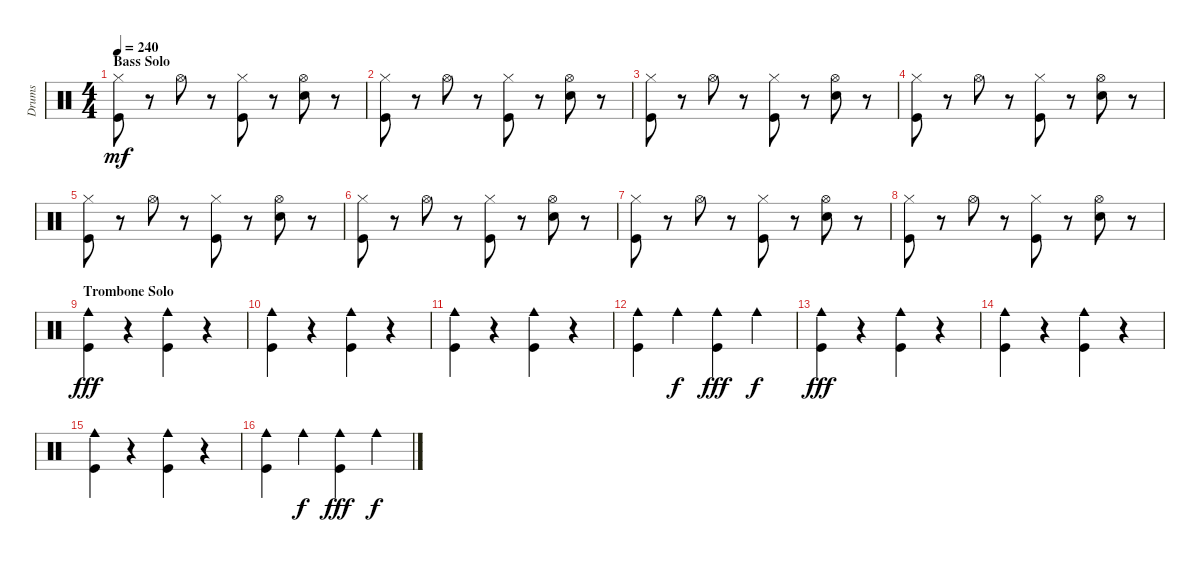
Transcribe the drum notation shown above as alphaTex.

\track ("Drums" "Drums") {instrument percussion}
\staff {score}
\articulation defaults
\ts (4 4)
\section ("" "Bass Solo")
\tempo 240
\clef neutral
\ks c
("Kick (hit)" "Hi-Hat (closed)").8{dy mf} r.8 "Hi-Hat (open)".8 r.8 ("Kick (hit)" "Hi-Hat (closed)").8 r.8 ("Snare (hit) 2" "Hi-Hat (open)").8 r.8 |
("Kick (hit)" "Hi-Hat (closed)").8 r.8 "Hi-Hat (open)".8 r.8 ("Kick (hit)" "Hi-Hat (closed)").8 r.8 ("Snare (hit) 2" "Hi-Hat (open)").8 r.8 |
("Kick (hit)" "Hi-Hat (closed)").8 r.8 "Hi-Hat (open)".8 r.8 ("Kick (hit)" "Hi-Hat (closed)").8 r.8 ("Snare (hit) 2" "Hi-Hat (open)").8 r.8 |
("Kick (hit)" "Hi-Hat (closed)").8 r.8 "Hi-Hat (open)".8 r.8 ("Kick (hit)" "Hi-Hat (closed)").8 r.8 ("Snare (hit) 2" "Hi-Hat (open)").8 r.8 |
("Kick (hit)" "Hi-Hat (closed)").8 r.8 "Hi-Hat (open)".8 r.8 ("Kick (hit)" "Hi-Hat (closed)").8 r.8 ("Snare (hit) 2" "Hi-Hat (open)").8 r.8 |
("Kick (hit)" "Hi-Hat (closed)").8 r.8 "Hi-Hat (open)".8 r.8 ("Kick (hit)" "Hi-Hat (closed)").8 r.8 ("Snare (hit) 2" "Hi-Hat (open)").8 r.8 |
("Kick (hit)" "Hi-Hat (closed)").8 r.8 "Hi-Hat (open)".8 r.8 ("Kick (hit)" "Hi-Hat (closed)").8 r.8 ("Snare (hit) 2" "Hi-Hat (open)").8 r.8 |
("Kick (hit)" "Hi-Hat (closed)").8 r.8 "Hi-Hat (open)".8 r.8 ("Kick (hit)" "Hi-Hat (closed)").8 r.8 ("Snare (hit) 2" "Hi-Hat (open)").8 r.8 |
\section ("" "Trombone Solo")
("Cowbell medium (hit)" "Kick (hit)").4{dy fff} r.4 ("Cowbell medium (hit)" "Kick (hit)").4 r.4 |
("Cowbell medium (hit)" "Kick (hit)").4 r.4 ("Cowbell medium (hit)" "Kick (hit)").4 r.4 |
("Cowbell medium (hit)" "Kick (hit)").4 r.4 ("Cowbell medium (hit)" "Kick (hit)").4 r.4 |
("Cowbell medium (hit)" "Kick (hit)").4 "Cowbell medium (hit)".4{dy f} ("Cowbell medium (hit)" "Kick (hit)").4{dy fff} "Cowbell medium (hit)".4{dy f} |
("Cowbell medium (hit)" "Kick (hit)").4{dy fff} r.4 ("Cowbell medium (hit)" "Kick (hit)").4 r.4 |
("Cowbell medium (hit)" "Kick (hit)").4 r.4 ("Cowbell medium (hit)" "Kick (hit)").4 r.4 |
("Cowbell medium (hit)" "Kick (hit)").4 r.4 ("Cowbell medium (hit)" "Kick (hit)").4 r.4 |
("Cowbell medium (hit)" "Kick (hit)").4 "Cowbell medium (hit)".4{dy f} ("Cowbell medium (hit)" "Kick (hit)").4{dy fff} "Cowbell medium (hit)".4{dy f}
